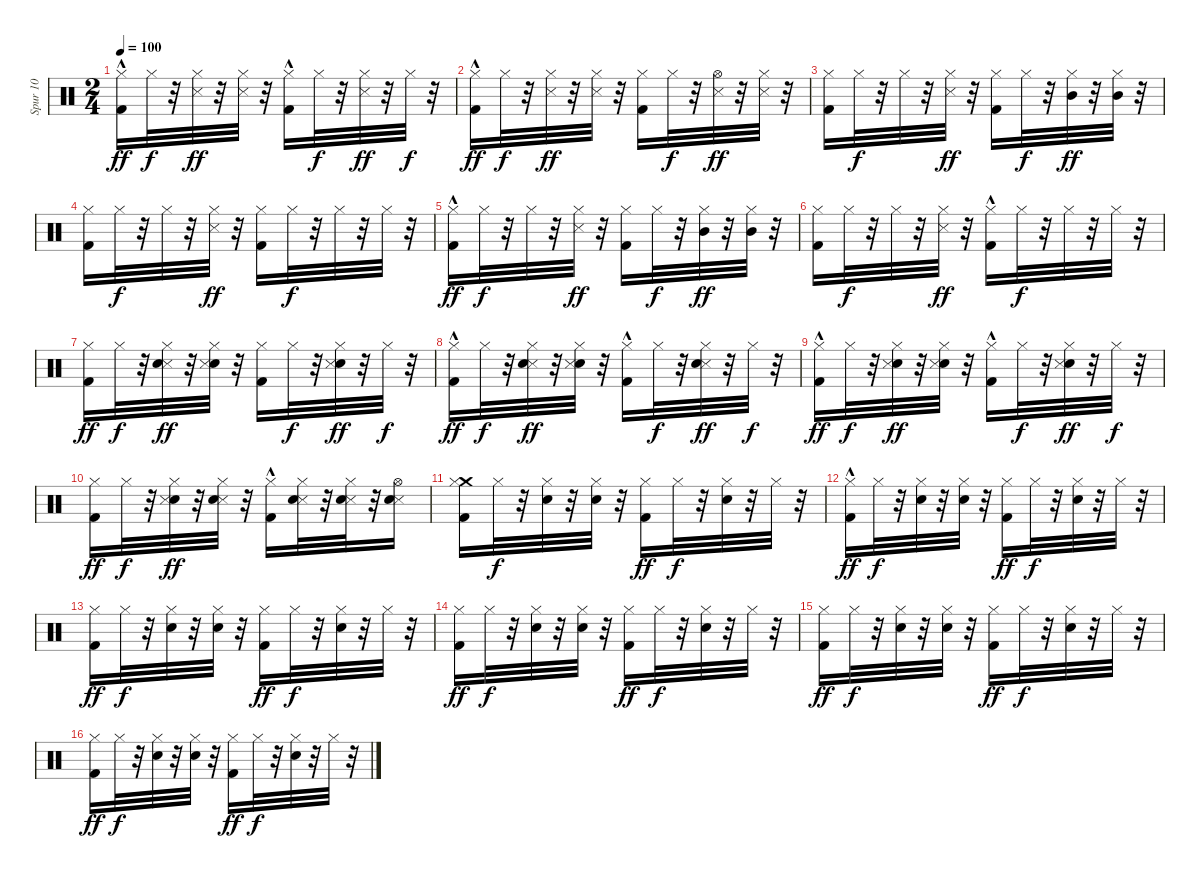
\track ("Spur 10" "Spur 10") {instrument percussion}
\staff {score}
\articulation defaults
\ts (2 4)
\tempo 100
\clef neutral
\ks c
("Kick (hit) 2"{hac} "Hi-Hat (closed)").16{dy ff} "Hi-Hat (closed)".32{dy f} r.32 ("Snare (side stick) 3" "Hi-Hat (closed)").32{dy ff} r.32 ("Snare (side stick) 3" "Hi-Hat (closed)").32 r.32 ("Hi-Hat (closed)" "Kick (hit) 2"{hac}).16 "Hi-Hat (closed)".32{dy f} r.32 ("Snare (side stick) 3" "Hi-Hat (closed)").32{dy ff} r.32 "Hi-Hat (closed)".32{dy f} r.32 |
("Hi-Hat (closed)" "Kick (hit) 2"{hac}).16{dy ff} "Hi-Hat (closed)".32{dy f} r.32 ("Snare (side stick) 3" "Hi-Hat (closed)").32{dy ff} r.32 ("Hi-Hat (closed)" "Snare (side stick) 3").32 r.32 ("Hi-Hat (closed)" "Kick (hit) 2").16 "Hi-Hat (closed)".32{dy f} r.32 ("Snare (side stick) 3" "Hi-Hat (open)").32{dy ff} r.32 ("Snare (side stick) 3" "Hi-Hat (closed)").32 r.32 |
("Kick (hit) 2" "Hi-Hat (closed)").16{volume 14} "Hi-Hat (closed)".32{dy f} r.32 "Hi-Hat (closed)".32 r.32 ("Snare (side stick) 3" "Hi-Hat (closed)").32{dy ff} r.32 ("Kick (hit) 2" "Hi-Hat (closed)").16 "Hi-Hat (closed)".32{dy f} r.32 ("Hi-Hat (closed)" "Mid Tom (hit)").32{dy ff} r.32 ("Hi-Hat (closed)" "Mid Tom (hit)").32 r.32 |
("Kick (hit) 2" "Hi-Hat (closed)").16 "Hi-Hat (closed)".32{dy f} r.32 "Hi-Hat (closed)".32 r.32 ("Snare (side stick) 3" "Hi-Hat (closed)").32{dy ff} r.32 ("Kick (hit) 2" "Hi-Hat (closed)").16 "Hi-Hat (closed)".32{dy f} r.32 "Hi-Hat (closed)".32 r.32 "Hi-Hat (closed)".32 r.32 |
("Kick (hit) 2"{hac} "Hi-Hat (closed)").16{dy ff} "Hi-Hat (closed)".32{dy f} r.32 "Hi-Hat (closed)".32 r.32 ("Snare (side stick) 3" "Hi-Hat (closed)").32{dy ff} r.32 ("Kick (hit) 2" "Hi-Hat (closed)").16 "Hi-Hat (closed)".32{dy f} r.32 ("Hi-Hat (closed)" "Mid Tom (hit)").32{dy ff} r.32 ("Hi-Hat (closed)" "Mid Tom (hit)").32 r.32 |
("Kick (hit) 2" "Hi-Hat (closed)").16 "Hi-Hat (closed)".32{dy f} r.32 "Hi-Hat (closed)".32 r.32 ("Snare (side stick) 3" "Hi-Hat (closed)").32{dy ff} r.32 ("Kick (hit) 2"{hac} "Hi-Hat (closed)").16 "Hi-Hat (closed)".32{dy f} r.32 "Hi-Hat (closed)".32 r.32 "Hi-Hat (closed)".32 r.32 |
("Hi-Hat (closed)" "Kick (hit) 2").16{dy ff} "Hi-Hat (closed)".32{dy f} r.32 ("Snare (side stick) 3" "Electric Snare (hit)" "Hi-Hat (closed)").32{dy ff} r.32 ("Hi-Hat (closed)" "Electric Snare (hit)" "Snare (side stick) 3").32 r.32 ("Hi-Hat (closed)" "Kick (hit) 2").16 "Hi-Hat (closed)".32{dy f} r.32 ("Hi-Hat (closed)" "Electric Snare (hit)" "Snare (side stick) 3").32{dy ff} r.32 "Hi-Hat (closed)".32{dy f} r.32 |
("Hi-Hat (closed)" "Kick (hit) 2"{hac}).16{dy ff} "Hi-Hat (closed)".32{dy f} r.32 ("Hi-Hat (closed)" "Snare (side stick) 3" "Electric Snare (hit)").32{dy ff} r.32 ("Hi-Hat (closed)" "Electric Snare (hit)" "Snare (side stick) 3").32 r.32 ("Hi-Hat (closed)" "Kick (hit) 2"{hac}).16 "Hi-Hat (closed)".32{dy f} r.32 ("Snare (side stick) 3" "Electric Snare (hit)" "Hi-Hat (closed)").32{dy ff} r.32 "Hi-Hat (closed)".32{dy f} r.32 |
("Hi-Hat (closed)" "Kick (hit) 2"{hac}).16{dy ff} "Hi-Hat (closed)".32{dy f} r.32 ("Electric Snare (hit)" "Hi-Hat (closed)" "Snare (side stick) 3").32{dy ff} r.32 ("Electric Snare (hit)" "Hi-Hat (closed)" "Snare (side stick) 3").32 r.32 ("Hi-Hat (closed)" "Kick (hit) 2"{hac}).16 "Hi-Hat (closed)".32{dy f} r.32 ("Electric Snare (hit)" "Snare (side stick) 3" "Hi-Hat (closed)").32{dy ff} r.32 "Hi-Hat (closed)".32{dy f} r.32 |
("Hi-Hat (closed)" "Kick (hit) 2").16{dy ff} "Hi-Hat (closed)".32{dy f} r.32 ("Electric Snare (hit)" "Snare (side stick) 3" "Hi-Hat (closed)").32{dy ff} r.32 ("Snare (side stick) 3" "Electric Snare (hit)" "Hi-Hat (closed)").32 r.32 ("Kick (hit) 2"{hac} "Hi-Hat (closed)").16 ("Snare (side stick) 3" "Electric Snare (hit)" "Hi-Hat (closed)").32 r.32 ("Snare (side stick) 3" "Electric Snare (hit)" "Hi-Hat (closed)").32 r.32 ("Snare (side stick) 3" "Electric Snare (hit)" "Hi-Hat (open)").16 |
("Crash medium (hit)" "Kick (hit) 2" "Hi-Hat (closed)").16{volume 14} "Hi-Hat (closed)".32{dy f} r.32 ("Hi-Hat (closed)" "Electric Snare (hit)").32 r.32 ("Hi-Hat (closed)" "Electric Snare (hit)").32 r.32 ("Hi-Hat (closed)" "Kick (hit) 2").16{dy ff} "Hi-Hat (closed)".32{dy f} r.32 ("Hi-Hat (closed)" "Electric Snare (hit)").32 r.32 "Hi-Hat (closed)".32 r.32 |
("Hi-Hat (closed)" "Kick (hit) 2"{hac}).16{dy ff} "Hi-Hat (closed)".32{dy f} r.32 ("Hi-Hat (closed)" "Electric Snare (hit)").32 r.32 ("Hi-Hat (closed)" "Electric Snare (hit)").32 r.32 ("Hi-Hat (closed)" "Kick (hit) 2").16{dy ff} "Hi-Hat (closed)".32{dy f} r.32 ("Hi-Hat (closed)" "Electric Snare (hit)").32 r.32 "Hi-Hat (closed)".32 r.32 |
("Hi-Hat (closed)" "Kick (hit) 2").16{dy ff} "Hi-Hat (closed)".32{dy f} r.32 ("Hi-Hat (closed)" "Electric Snare (hit)").32 r.32 ("Hi-Hat (closed)" "Electric Snare (hit)").32 r.32 ("Hi-Hat (closed)" "Kick (hit) 2").16{dy ff} "Hi-Hat (closed)".32{dy f} r.32 ("Electric Snare (hit)" "Hi-Hat (closed)").32 r.32 "Hi-Hat (closed)".32 r.32 |
("Hi-Hat (closed)" "Kick (hit) 2").16{dy ff} "Hi-Hat (closed)".32{dy f} r.32 ("Hi-Hat (closed)" "Electric Snare (hit)").32 r.32 ("Hi-Hat (closed)" "Electric Snare (hit)").32 r.32 ("Hi-Hat (closed)" "Kick (hit) 2").16{dy ff} "Hi-Hat (closed)".32{dy f} r.32 ("Electric Snare (hit)" "Hi-Hat (closed)").32 r.32 "Hi-Hat (closed)".32 r.32 |
("Kick (hit) 2" "Hi-Hat (closed)").16{dy ff} "Hi-Hat (closed)".32{dy f} r.32 ("Electric Snare (hit)" "Hi-Hat (closed)").32 r.32 ("Hi-Hat (closed)" "Electric Snare (hit)").32 r.32 ("Hi-Hat (closed)" "Kick (hit) 2").16{dy ff} "Hi-Hat (closed)".32{dy f} r.32 ("Electric Snare (hit)" "Hi-Hat (closed)").32 r.32 "Hi-Hat (closed)".32 r.32 |
("Kick (hit) 2" "Hi-Hat (closed)").16{dy ff} "Hi-Hat (closed)".32{dy f} r.32 ("Electric Snare (hit)" "Hi-Hat (closed)").32 r.32 ("Hi-Hat (closed)" "Electric Snare (hit)").32 r.32 ("Kick (hit) 2" "Hi-Hat (closed)").16{dy ff} "Hi-Hat (closed)".32{dy f} r.32 ("Electric Snare (hit)" "Hi-Hat (closed)").32 r.32 "Hi-Hat (closed)".32 r.32
